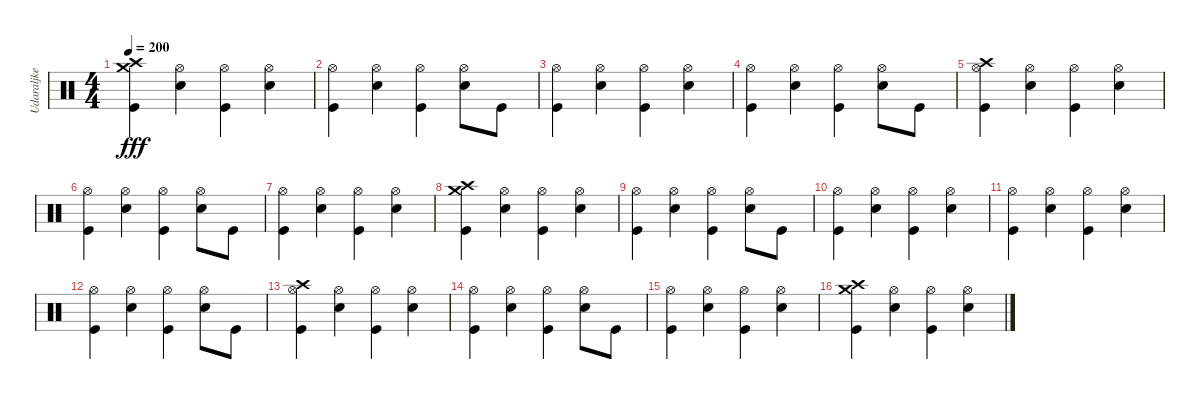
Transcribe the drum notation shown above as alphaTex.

\track ("Udaraljke" "Udaraljke") {instrument percussion}
\staff {score}
\articulation defaults
\ts (4 4)
\tempo 200
\clef neutral
\ks c
("Crash high (hit)" "Crash medium (hit)" "Kick (hit)").4{dy fff} ("Hi-Hat (open)" "Electric Snare (hit)").4 ("Hi-Hat (open)" "Kick (hit)").4 ("Hi-Hat (open)" "Electric Snare (hit)").4 |
("Hi-Hat (open)" "Kick (hit)").4 ("Hi-Hat (open)" "Electric Snare (hit)").4 ("Hi-Hat (open)" "Kick (hit)").4 ("Hi-Hat (open)" "Electric Snare (hit)").8 "Kick (hit)".8 |
("Hi-Hat (open)" "Kick (hit)").4 ("Hi-Hat (open)" "Electric Snare (hit)").4 ("Hi-Hat (open)" "Kick (hit)").4 ("Hi-Hat (open)" "Electric Snare (hit)").4 |
("Hi-Hat (open)" "Kick (hit)").4 ("Hi-Hat (open)" "Electric Snare (hit)").4 ("Hi-Hat (open)" "Kick (hit)").4 ("Hi-Hat (open)" "Electric Snare (hit)").8 "Kick (hit)".8 |
("Crash high (hit)" "Hi-Hat (open)" "Kick (hit)").4 ("Hi-Hat (open)" "Electric Snare (hit)").4 ("Hi-Hat (open)" "Kick (hit)").4 ("Hi-Hat (open)" "Electric Snare (hit)").4 |
("Hi-Hat (open)" "Kick (hit)").4 ("Hi-Hat (open)" "Electric Snare (hit)").4 ("Hi-Hat (open)" "Kick (hit)").4 ("Hi-Hat (open)" "Electric Snare (hit)").8 "Kick (hit)".8 |
("Hi-Hat (open)" "Kick (hit)").4 ("Hi-Hat (open)" "Electric Snare (hit)").4 ("Hi-Hat (open)" "Kick (hit)").4 ("Hi-Hat (open)" "Electric Snare (hit)").4 |
("Crash high (hit)" "Crash medium (hit)" "Kick (hit)").4 ("Hi-Hat (open)" "Electric Snare (hit)").4 ("Hi-Hat (open)" "Kick (hit)").4 ("Hi-Hat (open)" "Electric Snare (hit)").4 |
("Hi-Hat (open)" "Kick (hit)").4 ("Hi-Hat (open)" "Electric Snare (hit)").4 ("Hi-Hat (open)" "Kick (hit)").4 ("Hi-Hat (open)" "Electric Snare (hit)").8 "Kick (hit)".8 |
("Hi-Hat (open)" "Kick (hit)").4 ("Hi-Hat (open)" "Electric Snare (hit)").4 ("Hi-Hat (open)" "Kick (hit)").4 ("Hi-Hat (open)" "Electric Snare (hit)").4 |
("Hi-Hat (open)" "Kick (hit)").4 ("Hi-Hat (open)" "Electric Snare (hit)").4 ("Hi-Hat (open)" "Kick (hit)").4 ("Hi-Hat (open)" "Electric Snare (hit)").4 |
("Hi-Hat (open)" "Kick (hit)").4 ("Hi-Hat (open)" "Electric Snare (hit)").4 ("Hi-Hat (open)" "Kick (hit)").4 ("Hi-Hat (open)" "Electric Snare (hit)").8 "Kick (hit)".8 |
("Crash high (hit)" "Hi-Hat (open)" "Kick (hit)").4 ("Hi-Hat (open)" "Electric Snare (hit)").4 ("Hi-Hat (open)" "Kick (hit)").4 ("Hi-Hat (open)" "Electric Snare (hit)").4 |
("Hi-Hat (open)" "Kick (hit)").4 ("Hi-Hat (open)" "Electric Snare (hit)").4 ("Hi-Hat (open)" "Kick (hit)").4 ("Hi-Hat (open)" "Electric Snare (hit)").8 "Kick (hit)".8 |
("Hi-Hat (open)" "Kick (hit)").4 ("Hi-Hat (open)" "Electric Snare (hit)").4 ("Hi-Hat (open)" "Kick (hit)").4 ("Hi-Hat (open)" "Electric Snare (hit)").4 |
("Crash high (hit)" "Crash medium (hit)" "Kick (hit)").4 ("Hi-Hat (open)" "Electric Snare (hit)").4 ("Hi-Hat (open)" "Kick (hit)").4 ("Hi-Hat (open)" "Electric Snare (hit)").4
